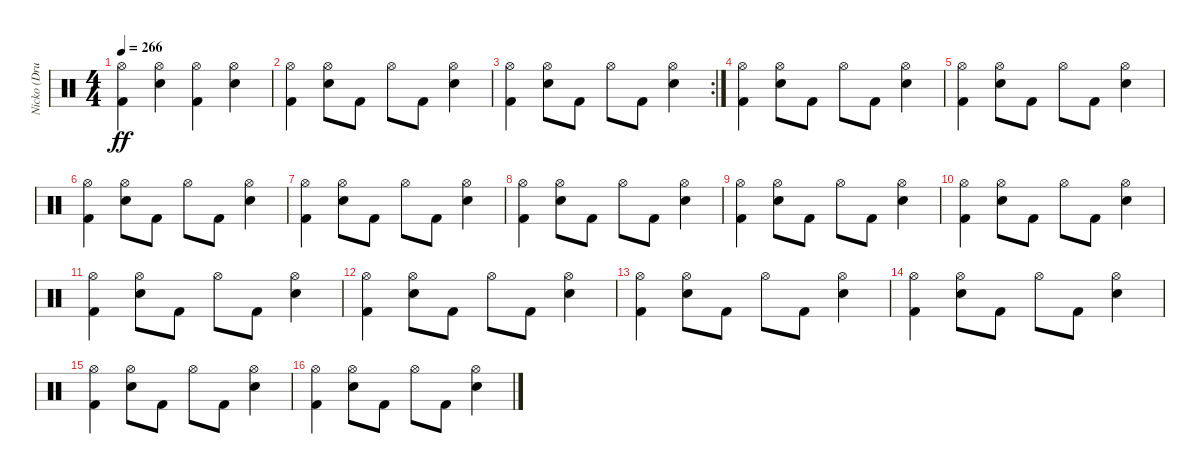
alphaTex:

\track ("Nicko (Drums)" "Nicko (Dru") {instrument percussion}
\staff {score}
\articulation defaults
\ts (4 4)
\tempo 266
\clef neutral
\ks c
("Kick (hit) 2" "Hi-Hat (open)").4{dy ff} ("Snare (hit) 2" "Hi-Hat (open)").4 ("Kick (hit) 2" "Hi-Hat (open)").4 ("Snare (hit) 2" "Hi-Hat (open)").4 |
("Kick (hit) 2" "Hi-Hat (open)").4 ("Snare (hit) 2" "Hi-Hat (open)").8 "Kick (hit) 2".8 "Hi-Hat (open)".8 "Kick (hit) 2".8 ("Snare (hit) 2" "Hi-Hat (open)").4 |
\rc 2
("Kick (hit) 2" "Hi-Hat (open)").4 ("Snare (hit) 2" "Hi-Hat (open)").8 "Kick (hit) 2".8 "Hi-Hat (open)".8 "Kick (hit) 2".8 ("Snare (hit) 2" "Hi-Hat (open)").4 |
("Kick (hit) 2" "Hi-Hat (open)").4 ("Snare (hit) 2" "Hi-Hat (open)").8 "Kick (hit) 2".8 "Hi-Hat (open)".8 "Kick (hit) 2".8 ("Snare (hit) 2" "Hi-Hat (open)").4 |
("Kick (hit) 2" "Hi-Hat (open)").4 ("Snare (hit) 2" "Hi-Hat (open)").8 "Kick (hit) 2".8 "Hi-Hat (open)".8 "Kick (hit) 2".8 ("Snare (hit) 2" "Hi-Hat (open)").4 |
("Kick (hit) 2" "Hi-Hat (open)").4 ("Snare (hit) 2" "Hi-Hat (open)").8 "Kick (hit) 2".8 "Hi-Hat (open)".8 "Kick (hit) 2".8 ("Snare (hit) 2" "Hi-Hat (open)").4 |
("Kick (hit) 2" "Hi-Hat (open)").4 ("Snare (hit) 2" "Hi-Hat (open)").8 "Kick (hit) 2".8 "Hi-Hat (open)".8 "Kick (hit) 2".8 ("Snare (hit) 2" "Hi-Hat (open)").4 |
("Kick (hit) 2" "Hi-Hat (open)").4 ("Snare (hit) 2" "Hi-Hat (open)").8 "Kick (hit) 2".8 "Hi-Hat (open)".8 "Kick (hit) 2".8 ("Snare (hit) 2" "Hi-Hat (open)").4 |
("Kick (hit) 2" "Hi-Hat (open)").4 ("Snare (hit) 2" "Hi-Hat (open)").8 "Kick (hit) 2".8 "Hi-Hat (open)".8 "Kick (hit) 2".8 ("Snare (hit) 2" "Hi-Hat (open)").4 |
("Kick (hit) 2" "Hi-Hat (open)").4 ("Snare (hit) 2" "Hi-Hat (open)").8 "Kick (hit) 2".8 "Hi-Hat (open)".8 "Kick (hit) 2".8 ("Snare (hit) 2" "Hi-Hat (open)").4 |
("Kick (hit) 2" "Hi-Hat (open)").4 ("Snare (hit) 2" "Hi-Hat (open)").8 "Kick (hit) 2".8 "Hi-Hat (open)".8 "Kick (hit) 2".8 ("Snare (hit) 2" "Hi-Hat (open)").4 |
("Kick (hit) 2" "Hi-Hat (open)").4 ("Snare (hit) 2" "Hi-Hat (open)").8 "Kick (hit) 2".8 "Hi-Hat (open)".8 "Kick (hit) 2".8 ("Snare (hit) 2" "Hi-Hat (open)").4 |
("Kick (hit) 2" "Hi-Hat (open)").4 ("Snare (hit) 2" "Hi-Hat (open)").8 "Kick (hit) 2".8 "Hi-Hat (open)".8 "Kick (hit) 2".8 ("Snare (hit) 2" "Hi-Hat (open)").4 |
("Kick (hit) 2" "Hi-Hat (open)").4 ("Snare (hit) 2" "Hi-Hat (open)").8 "Kick (hit) 2".8 "Hi-Hat (open)".8 "Kick (hit) 2".8 ("Snare (hit) 2" "Hi-Hat (open)").4 |
("Kick (hit) 2" "Hi-Hat (open)").4 ("Snare (hit) 2" "Hi-Hat (open)").8 "Kick (hit) 2".8 "Hi-Hat (open)".8 "Kick (hit) 2".8 ("Snare (hit) 2" "Hi-Hat (open)").4 |
("Kick (hit) 2" "Hi-Hat (open)").4 ("Snare (hit) 2" "Hi-Hat (open)").8 "Kick (hit) 2".8 "Hi-Hat (open)".8 "Kick (hit) 2".8 ("Snare (hit) 2" "Hi-Hat (open)").4
